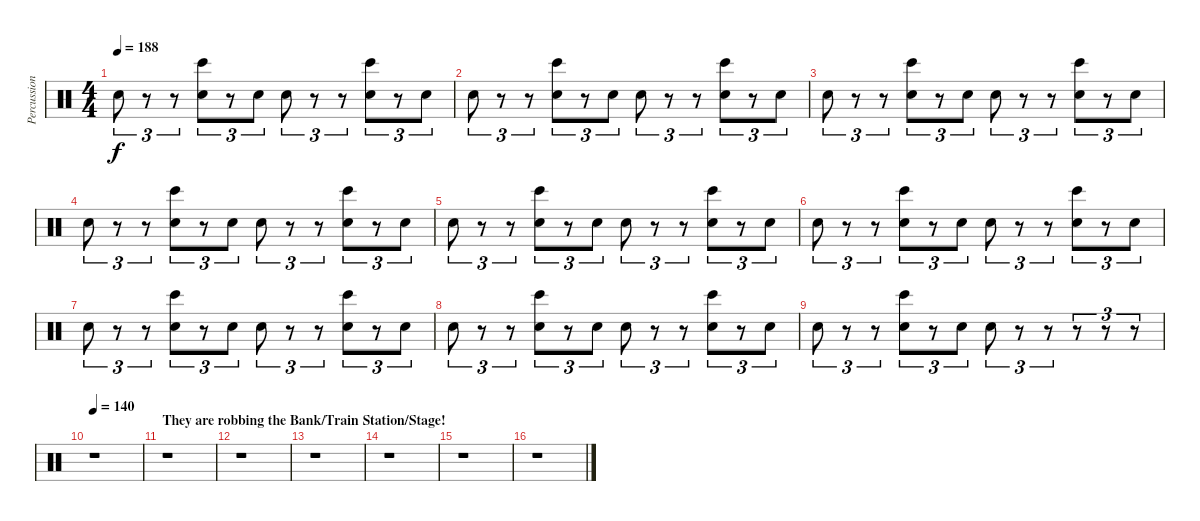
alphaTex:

\track ("Percussion" "Percussion") {instrument percussion}
\staff {score}
\articulation defaults
\ts (4 4)
\tempo 188
\clef neutral
\ks c "Snare (hit) 2".8{tu (3 2) dy f}
r.8{tu (3 2)} r.8{tu (3 2)} ("Bongo High (hit)" "Snare (hit) 2").8{tu (3 2)} r.8{tu (3 2)} "Snare (hit) 2".8{tu (3 2)} "Snare (hit) 2".8{tu (3 2)} r.8{tu (3 2)} r.8{tu (3 2)} ("Bongo High (hit)" "Snare (hit) 2").8{tu (3 2)} r.8{tu (3 2)} "Snare (hit) 2".8{tu (3 2)} |
"Snare (hit) 2".8{tu (3 2)} r.8{tu (3 2)} r.8{tu (3 2)} ("Bongo High (hit)" "Snare (hit) 2").8{tu (3 2)} r.8{tu (3 2)} "Snare (hit) 2".8{tu (3 2)} "Snare (hit) 2".8{tu (3 2)} r.8{tu (3 2)} r.8{tu (3 2)} ("Bongo High (hit)" "Snare (hit) 2").8{tu (3 2)} r.8{tu (3 2)} "Snare (hit) 2".8{tu (3 2)} |
"Snare (hit) 2".8{tu (3 2)} r.8{tu (3 2)} r.8{tu (3 2)} ("Bongo High (hit)" "Snare (hit) 2").8{tu (3 2)} r.8{tu (3 2)} "Snare (hit) 2".8{tu (3 2)} "Snare (hit) 2".8{tu (3 2)} r.8{tu (3 2)} r.8{tu (3 2)} ("Bongo High (hit)" "Snare (hit) 2").8{tu (3 2)} r.8{tu (3 2)} "Snare (hit) 2".8{tu (3 2)} |
"Snare (hit) 2".8{tu (3 2)} r.8{tu (3 2)} r.8{tu (3 2)} ("Bongo High (hit)" "Snare (hit) 2").8{tu (3 2)} r.8{tu (3 2)} "Snare (hit) 2".8{tu (3 2)} "Snare (hit) 2".8{tu (3 2)} r.8{tu (3 2)} r.8{tu (3 2)} ("Bongo High (hit)" "Snare (hit) 2").8{tu (3 2)} r.8{tu (3 2)} "Snare (hit) 2".8{tu (3 2)} |
"Snare (hit) 2".8{tu (3 2)} r.8{tu (3 2)} r.8{tu (3 2)} ("Bongo High (hit)" "Snare (hit) 2").8{tu (3 2)} r.8{tu (3 2)} "Snare (hit) 2".8{tu (3 2)} "Snare (hit) 2".8{tu (3 2)} r.8{tu (3 2)} r.8{tu (3 2)} ("Bongo High (hit)" "Snare (hit) 2").8{tu (3 2)} r.8{tu (3 2)} "Snare (hit) 2".8{tu (3 2)} |
"Snare (hit) 2".8{tu (3 2)} r.8{tu (3 2)} r.8{tu (3 2)} ("Bongo High (hit)" "Snare (hit) 2").8{tu (3 2)} r.8{tu (3 2)} "Snare (hit) 2".8{tu (3 2)} "Snare (hit) 2".8{tu (3 2)} r.8{tu (3 2)} r.8{tu (3 2)} ("Bongo High (hit)" "Snare (hit) 2").8{tu (3 2)} r.8{tu (3 2)} "Snare (hit) 2".8{tu (3 2)} |
"Snare (hit) 2".8{tu (3 2)} r.8{tu (3 2)} r.8{tu (3 2)} ("Bongo High (hit)" "Snare (hit) 2").8{tu (3 2)} r.8{tu (3 2)} "Snare (hit) 2".8{tu (3 2)} "Snare (hit) 2".8{tu (3 2)} r.8{tu (3 2)} r.8{tu (3 2)} ("Bongo High (hit)" "Snare (hit) 2").8{tu (3 2)} r.8{tu (3 2)} "Snare (hit) 2".8{tu (3 2)} |
"Snare (hit) 2".8{tu (3 2)} r.8{tu (3 2)} r.8{tu (3 2)} ("Bongo High (hit)" "Snare (hit) 2").8{tu (3 2)} r.8{tu (3 2)} "Snare (hit) 2".8{tu (3 2)} "Snare (hit) 2".8{tu (3 2)} r.8{tu (3 2)} r.8{tu (3 2)} ("Bongo High (hit)" "Snare (hit) 2").8{tu (3 2)} r.8{tu (3 2)} "Snare (hit) 2".8{tu (3 2)} |
"Snare (hit) 2".8{tu (3 2)} r.8{tu (3 2)} r.8{tu (3 2)} ("Bongo High (hit)" "Snare (hit) 2").8{tu (3 2)} r.8{tu (3 2)} "Snare (hit) 2".8{tu (3 2)} "Snare (hit) 2".8{tu (3 2)} r.8{tu (3 2)} r.8{tu (3 2)} r.8{tu (3 2)} r.8{tu (3 2)} r.8{tu (3 2)} |
\tempo 140
r.1 |
\section ("" "They are robbing the Bank/Train Station/Stage!")
r.1 |
r.1 |
r.1 |
r.1 |
r.1 |
r.1
